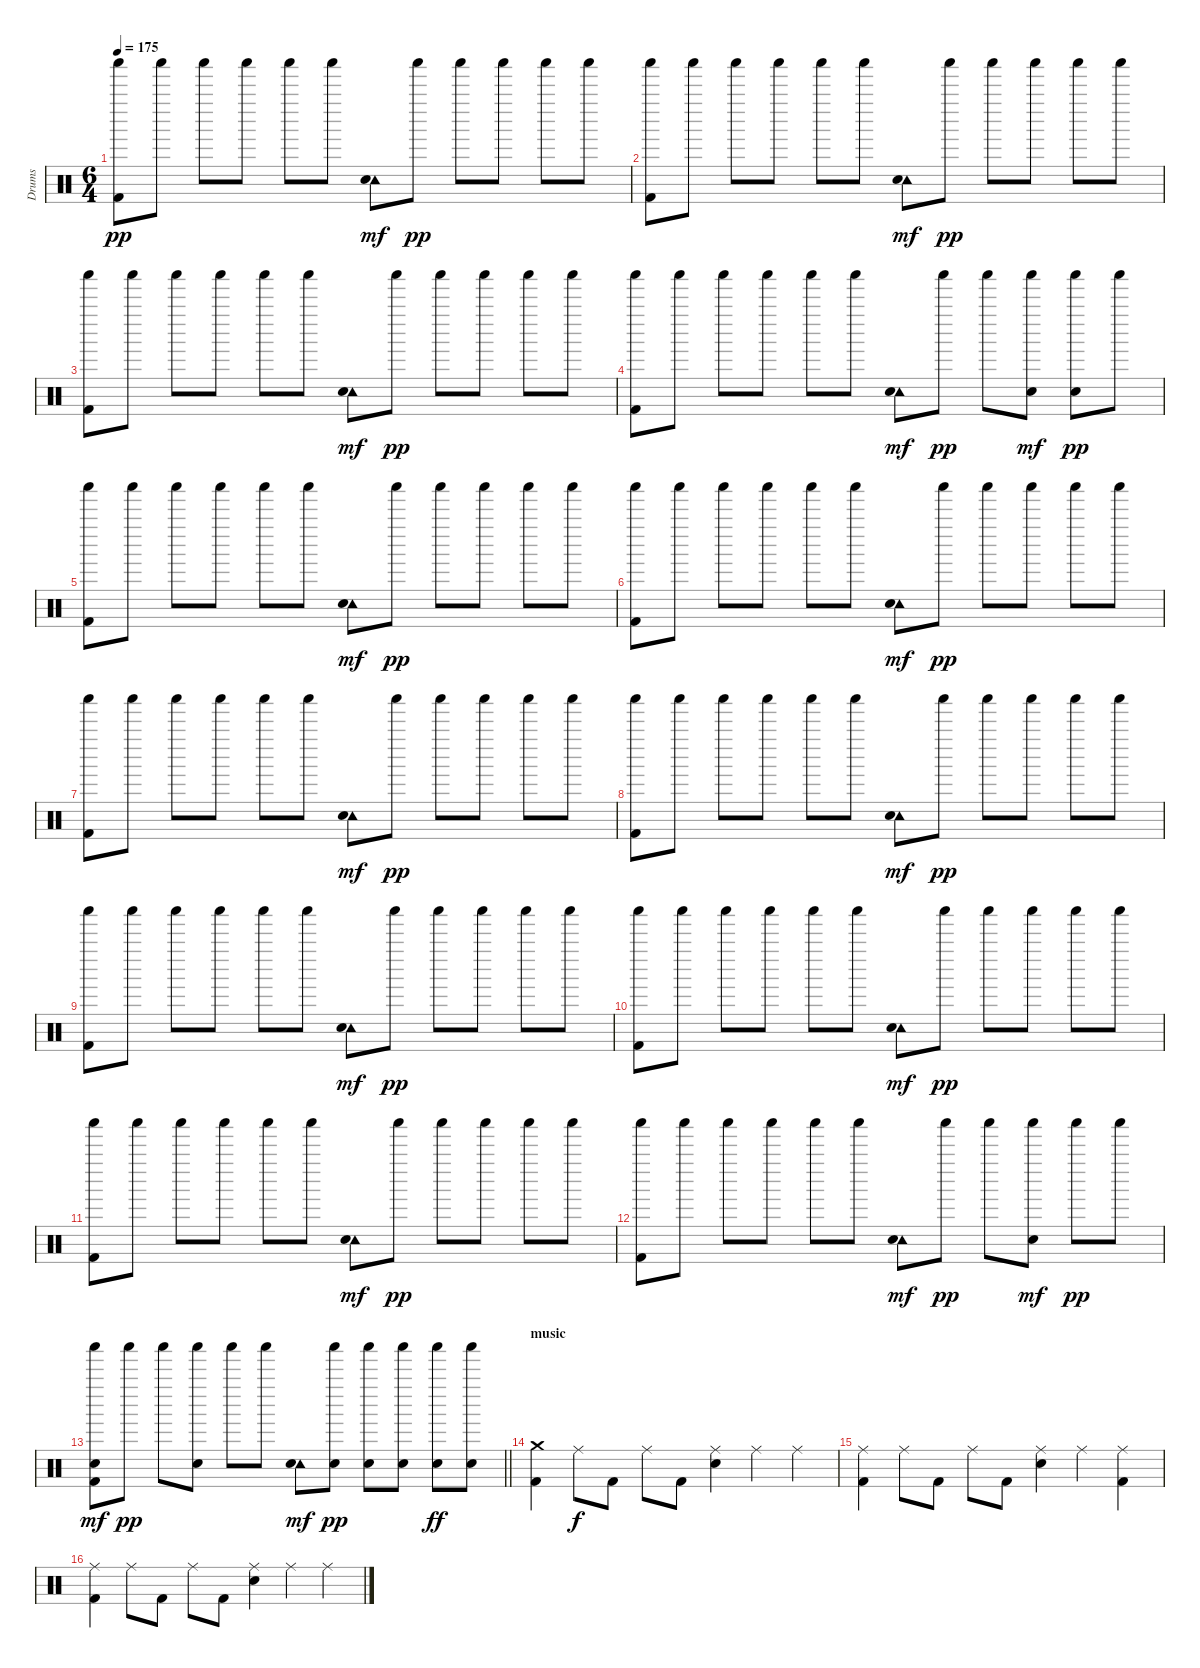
\track ("Drums" "Drums") {instrument percussion}
\staff {score}
\articulation defaults
\ts (6 4)
\tempo 175
\clef neutral
\ks c
("Shaker (hit)" "Kick (hit) 2").8{dy pp} "Shaker (hit)".8 "Shaker (hit)".8 "Shaker (hit)".8 "Shaker (hit)".8 "Shaker (hit)".8 ("Tambourine (hit)" "Snare (hit) 2").8{dy mf} "Shaker (hit)".8{dy pp} "Shaker (hit)".8 "Shaker (hit)".8 "Shaker (hit)".8 "Shaker (hit)".8 |
("Shaker (hit)" "Kick (hit) 2").8 "Shaker (hit)".8 "Shaker (hit)".8 "Shaker (hit)".8 "Shaker (hit)".8 "Shaker (hit)".8 ("Tambourine (hit)" "Snare (hit) 2").8{dy mf} "Shaker (hit)".8{dy pp} "Shaker (hit)".8 "Shaker (hit)".8 "Shaker (hit)".8 "Shaker (hit)".8 |
("Shaker (hit)" "Kick (hit) 2").8 "Shaker (hit)".8 "Shaker (hit)".8 "Shaker (hit)".8 "Shaker (hit)".8 "Shaker (hit)".8 ("Tambourine (hit)" "Snare (hit) 2").8{dy mf} "Shaker (hit)".8{dy pp} "Shaker (hit)".8 "Shaker (hit)".8 "Shaker (hit)".8 "Shaker (hit)".8 |
("Shaker (hit)" "Kick (hit) 2").8 "Shaker (hit)".8 "Shaker (hit)".8 "Shaker (hit)".8 "Shaker (hit)".8 "Shaker (hit)".8 ("Tambourine (hit)" "Snare (hit) 2").8{dy mf} "Shaker (hit)".8{dy pp} "Shaker (hit)".8 ("Shaker (hit)" "Snare (hit) 2").8{dy mf} ("Shaker (hit)" "Snare (hit) 2").8{dy pp} "Shaker (hit)".8 |
("Shaker (hit)" "Kick (hit) 2").8 "Shaker (hit)".8 "Shaker (hit)".8 "Shaker (hit)".8 "Shaker (hit)".8 "Shaker (hit)".8 ("Tambourine (hit)" "Snare (hit) 2").8{dy mf} "Shaker (hit)".8{dy pp} "Shaker (hit)".8 "Shaker (hit)".8 "Shaker (hit)".8 "Shaker (hit)".8 |
("Shaker (hit)" "Kick (hit) 2").8 "Shaker (hit)".8 "Shaker (hit)".8 "Shaker (hit)".8 "Shaker (hit)".8 "Shaker (hit)".8 ("Tambourine (hit)" "Snare (hit) 2").8{dy mf} "Shaker (hit)".8{dy pp} "Shaker (hit)".8 "Shaker (hit)".8 "Shaker (hit)".8 "Shaker (hit)".8 |
("Shaker (hit)" "Kick (hit) 2").8 "Shaker (hit)".8 "Shaker (hit)".8 "Shaker (hit)".8 "Shaker (hit)".8 "Shaker (hit)".8 ("Tambourine (hit)" "Snare (hit) 2").8{dy mf} "Shaker (hit)".8{dy pp} "Shaker (hit)".8 "Shaker (hit)".8 "Shaker (hit)".8 "Shaker (hit)".8 |
("Shaker (hit)" "Kick (hit) 2").8 "Shaker (hit)".8 "Shaker (hit)".8 "Shaker (hit)".8 "Shaker (hit)".8 "Shaker (hit)".8 ("Tambourine (hit)" "Snare (hit) 2").8{dy mf} "Shaker (hit)".8{dy pp} "Shaker (hit)".8 "Shaker (hit)".8 "Shaker (hit)".8 "Shaker (hit)".8 |
("Shaker (hit)" "Kick (hit) 2").8 "Shaker (hit)".8 "Shaker (hit)".8 "Shaker (hit)".8 "Shaker (hit)".8 "Shaker (hit)".8 ("Tambourine (hit)" "Snare (hit) 2").8{dy mf} "Shaker (hit)".8{dy pp} "Shaker (hit)".8 "Shaker (hit)".8 "Shaker (hit)".8 "Shaker (hit)".8 |
("Shaker (hit)" "Kick (hit) 2").8 "Shaker (hit)".8 "Shaker (hit)".8 "Shaker (hit)".8 "Shaker (hit)".8 "Shaker (hit)".8 ("Tambourine (hit)" "Snare (hit) 2").8{dy mf} "Shaker (hit)".8{dy pp} "Shaker (hit)".8 "Shaker (hit)".8 "Shaker (hit)".8 "Shaker (hit)".8 |
("Shaker (hit)" "Kick (hit) 2").8 "Shaker (hit)".8 "Shaker (hit)".8 "Shaker (hit)".8 "Shaker (hit)".8 "Shaker (hit)".8 ("Tambourine (hit)" "Snare (hit) 2").8{dy mf} "Shaker (hit)".8{dy pp} "Shaker (hit)".8 "Shaker (hit)".8 "Shaker (hit)".8 "Shaker (hit)".8 |
("Shaker (hit)" "Kick (hit) 2").8 "Shaker (hit)".8 "Shaker (hit)".8 "Shaker (hit)".8 "Shaker (hit)".8 "Shaker (hit)".8 ("Tambourine (hit)" "Snare (hit) 2").8{dy mf} "Shaker (hit)".8{dy pp} "Shaker (hit)".8 ("Shaker (hit)" "Snare (hit) 2").8{dy mf} "Shaker (hit)".8{dy pp} "Shaker (hit)".8 |
\barLineRight lightlight
("Shaker (hit)" "Snare (hit) 2" "Kick (hit) 2").8{dy mf} "Shaker (hit)".8{dy pp} "Shaker (hit)".8 ("Shaker (hit)" "Snare (hit) 2").8 "Shaker (hit)".8 "Shaker (hit)".8 ("Tambourine (hit)" "Snare (hit) 2").8{dy mf} ("Shaker (hit)" "Snare (hit) 2").8{dy pp} ("Shaker (hit)" "Snare (hit) 2").8 ("Shaker (hit)" "Snare (hit) 2").8 ("Shaker (hit)" "Snare (hit) 2").8{dy ff} ("Shaker (hit)" "Snare (hit) 2").8 |
\section ("" "music")
("Crash medium (hit)" "Kick (hit) 2").4 "Ride (middle)".8{dy f} "Kick (hit) 2".8 "Ride (middle)".8 "Kick (hit) 2".8 ("Ride (middle)" "Snare (hit) 2").4 "Ride (middle)".4 "Ride (middle)".4 |
("Ride (middle)" "Kick (hit) 2").4 "Ride (middle)".8 "Kick (hit) 2".8 "Ride (middle)".8 "Kick (hit) 2".8 ("Ride (middle)" "Snare (hit) 2").4 "Ride (middle)".4 ("Ride (middle)" "Kick (hit) 2").4 |
("Ride (middle)" "Kick (hit) 2").4 "Ride (middle)".8 "Kick (hit) 2".8 "Ride (middle)".8 "Kick (hit) 2".8 ("Ride (middle)" "Snare (hit) 2").4 "Ride (middle)".4 "Ride (middle)".4
